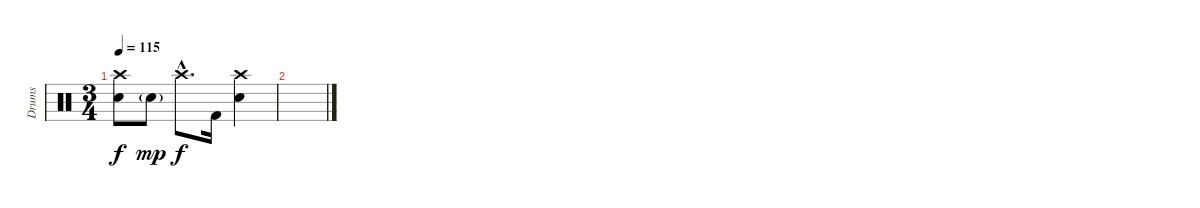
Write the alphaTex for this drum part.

\track ("Drums" "Drums") {instrument percussion}
\staff {score}
\articulation defaults
\ts (3 4)
\tempo 115
\clef neutral
\ks c
("Crash high (hit)" "Electric Snare (hit)").8{dy f} "Electric Snare (hit)"{g}.8{dy mp} "Crash high (hit)"{hac}.8{d dy f} "Kick (hit) 2".16 ("Crash high (hit)" "Electric Snare (hit)").4 |
\section ("" "")
